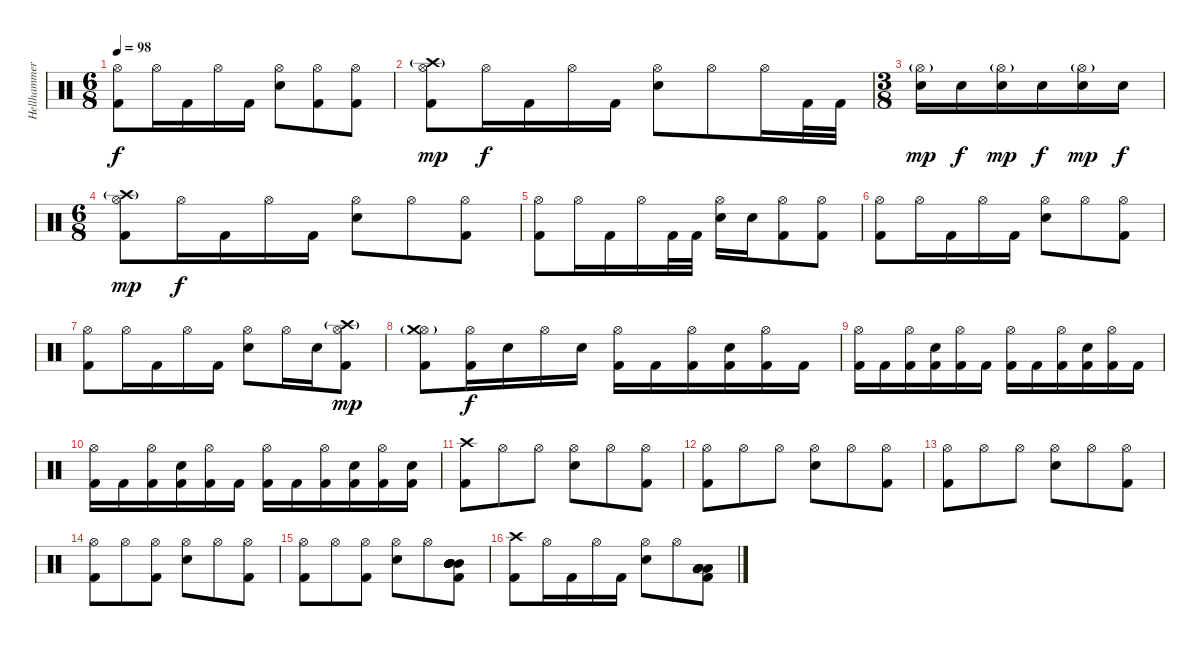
\track ("Hellhammer (Drums)" "Hellhammer") {instrument percussion}
\staff {score}
\articulation defaults
\ts (6 8)
\tempo 98
\clef neutral
\ks c
("Kick (hit) 2" "Hi-Hat (open)").8{dy f} "Hi-Hat (open)".16 "Kick (hit) 2".16 "Hi-Hat (open)".16 "Kick (hit) 2".16 ("Electric Snare (hit)" "Hi-Hat (open)").8 ("Kick (hit) 2" "Hi-Hat (open)").8 ("Kick (hit) 2" "Hi-Hat (open)").8 |
("Kick (hit) 2" "Hi-Hat (open)" "Crash high (hit)"{g}).8{dy mp} "Hi-Hat (open)".16{dy f} "Kick (hit) 2".16 "Hi-Hat (open)".16 "Kick (hit) 2".16 ("Electric Snare (hit)" "Hi-Hat (open)").8 "Hi-Hat (open)".8 "Hi-Hat (open)".16 "Kick (hit) 2".32 "Kick (hit) 2".32 |
\ts (3 8)
("Electric Snare (hit)" "Hi-Hat (open)"{g}).16{dy mp} "Electric Snare (hit)".16{dy f} ("Electric Snare (hit)" "Hi-Hat (open)"{g}).16{dy mp} "Electric Snare (hit)".16{dy f} ("Electric Snare (hit)" "Hi-Hat (open)"{g}).16{dy mp} "Electric Snare (hit)".16{dy f} |
\ts (6 8)
("Kick (hit) 2" "Hi-Hat (open)" "Crash high (hit)"{g}).8{dy mp} "Hi-Hat (open)".16{dy f} "Kick (hit) 2".16 "Hi-Hat (open)".16 "Kick (hit) 2".16 ("Electric Snare (hit)" "Hi-Hat (open)").8 "Hi-Hat (open)".8 ("Kick (hit) 2" "Hi-Hat (open)").8 |
("Kick (hit) 2" "Hi-Hat (open)").8 "Hi-Hat (open)".16 "Kick (hit) 2".16 "Hi-Hat (open)".16 "Kick (hit) 2".32 "Kick (hit) 2".32 ("Electric Snare (hit)" "Hi-Hat (open)").16 "Electric Snare (hit)".16 ("Kick (hit) 2" "Hi-Hat (open)").8 ("Kick (hit) 2" "Hi-Hat (open)").8 |
("Kick (hit) 2" "Hi-Hat (open)").8 "Hi-Hat (open)".16 "Kick (hit) 2".16 "Hi-Hat (open)".16 "Kick (hit) 2".16 ("Electric Snare (hit)" "Hi-Hat (open)").8 "Hi-Hat (open)".8 ("Kick (hit) 2" "Hi-Hat (open)").8 |
("Kick (hit) 2" "Hi-Hat (open)").8 "Hi-Hat (open)".16 "Kick (hit) 2".16 "Hi-Hat (open)".16 "Kick (hit) 2".16 ("Electric Snare (hit)" "Hi-Hat (open)").8 "Hi-Hat (open)".16 "Electric Snare (hit)".16 ("Kick (hit) 2" "Hi-Hat (open)" "Crash high (hit)"{g}).8{dy mp} |
("Kick (hit) 2" "Hi-Hat (open)" "Crash medium (hit)"{g}).8 ("Kick (hit) 2" "Hi-Hat (open)").16{dy f} "Electric Snare (hit)".16 "Hi-Hat (open)".16 "Electric Snare (hit)".16 ("Kick (hit) 2" "Hi-Hat (open)").16 "Kick (hit) 2".16 ("Kick (hit) 2" "Hi-Hat (open)").16 ("Kick (hit) 2" "Electric Snare (hit)").16 ("Kick (hit) 2" "Hi-Hat (open)").16 "Kick (hit) 2".16 |
("Kick (hit) 2" "Hi-Hat (open)").16 "Kick (hit) 2".16 ("Kick (hit) 2" "Hi-Hat (open)").16 ("Kick (hit) 2" "Electric Snare (hit)").16 ("Kick (hit) 2" "Hi-Hat (open)").16 "Kick (hit) 2".16 ("Kick (hit) 2" "Hi-Hat (open)").16 "Kick (hit) 2".16 ("Kick (hit) 2" "Hi-Hat (open)").16 ("Kick (hit) 2" "Electric Snare (hit)").16 ("Kick (hit) 2" "Hi-Hat (open)").16 "Kick (hit) 2".16 |
("Kick (hit) 2" "Hi-Hat (open)").16 "Kick (hit) 2".16 ("Kick (hit) 2" "Hi-Hat (open)").16 ("Kick (hit) 2" "Electric Snare (hit)").16 ("Kick (hit) 2" "Hi-Hat (open)").16 "Kick (hit) 2".16 ("Kick (hit) 2" "Hi-Hat (open)").16 "Kick (hit) 2".16 ("Kick (hit) 2" "Hi-Hat (open)").16 ("Kick (hit) 2" "Electric Snare (hit)").16 ("Kick (hit) 2" "Hi-Hat (open)").16 ("Kick (hit) 2" "Electric Snare (hit)").16 |
("Kick (hit) 2" "Crash high (hit)").8 "Hi-Hat (open)".8 "Hi-Hat (open)".8 ("Electric Snare (hit)" "Hi-Hat (open)").8 "Hi-Hat (open)".8 ("Kick (hit) 2" "Hi-Hat (open)").8 |
("Kick (hit) 2" "Hi-Hat (open)").8 "Hi-Hat (open)".8 "Hi-Hat (open)".8 ("Electric Snare (hit)" "Hi-Hat (open)").8 "Hi-Hat (open)".8 ("Kick (hit) 2" "Hi-Hat (open)").8 |
("Kick (hit) 2" "Hi-Hat (open)").8 "Hi-Hat (open)".8 "Hi-Hat (open)".8 ("Electric Snare (hit)" "Hi-Hat (open)").8 "Hi-Hat (open)".8 ("Kick (hit) 2" "Hi-Hat (open)").8 |
("Kick (hit) 2" "Hi-Hat (open)").8 "Hi-Hat (open)".8 ("Kick (hit) 2" "Hi-Hat (open)").8 ("Electric Snare (hit)" "Hi-Hat (open)").8 "Hi-Hat (open)".8 ("Kick (hit) 2" "Hi-Hat (open)").8 |
("Kick (hit) 2" "Hi-Hat (open)").8 "Hi-Hat (open)".8 ("Kick (hit) 2" "Hi-Hat (open)").8 ("Electric Snare (hit)" "Hi-Hat (open)").8 "Hi-Hat (open)".8 ("Kick (hit) 2" "Mid Tom (hit)" "Mid Tom (hit)" "Mid Tom (hit)" "Mid Tom (hit)" "Mid Tom (hit)").8 |
("Kick (hit) 2" "Crash high (hit)").8 "Hi-Hat (open)".16 "Kick (hit) 2".16 "Hi-Hat (open)".16 "Kick (hit) 2".16 ("Electric Snare (hit)" "Hi-Hat (open)").8 "Hi-Hat (open)".8 ("Kick (hit) 2" "Low Tom (hit)" "Low Tom (hit)" "Low Tom (hit)" "Low Tom (hit)" "Low Tom (hit)").8
